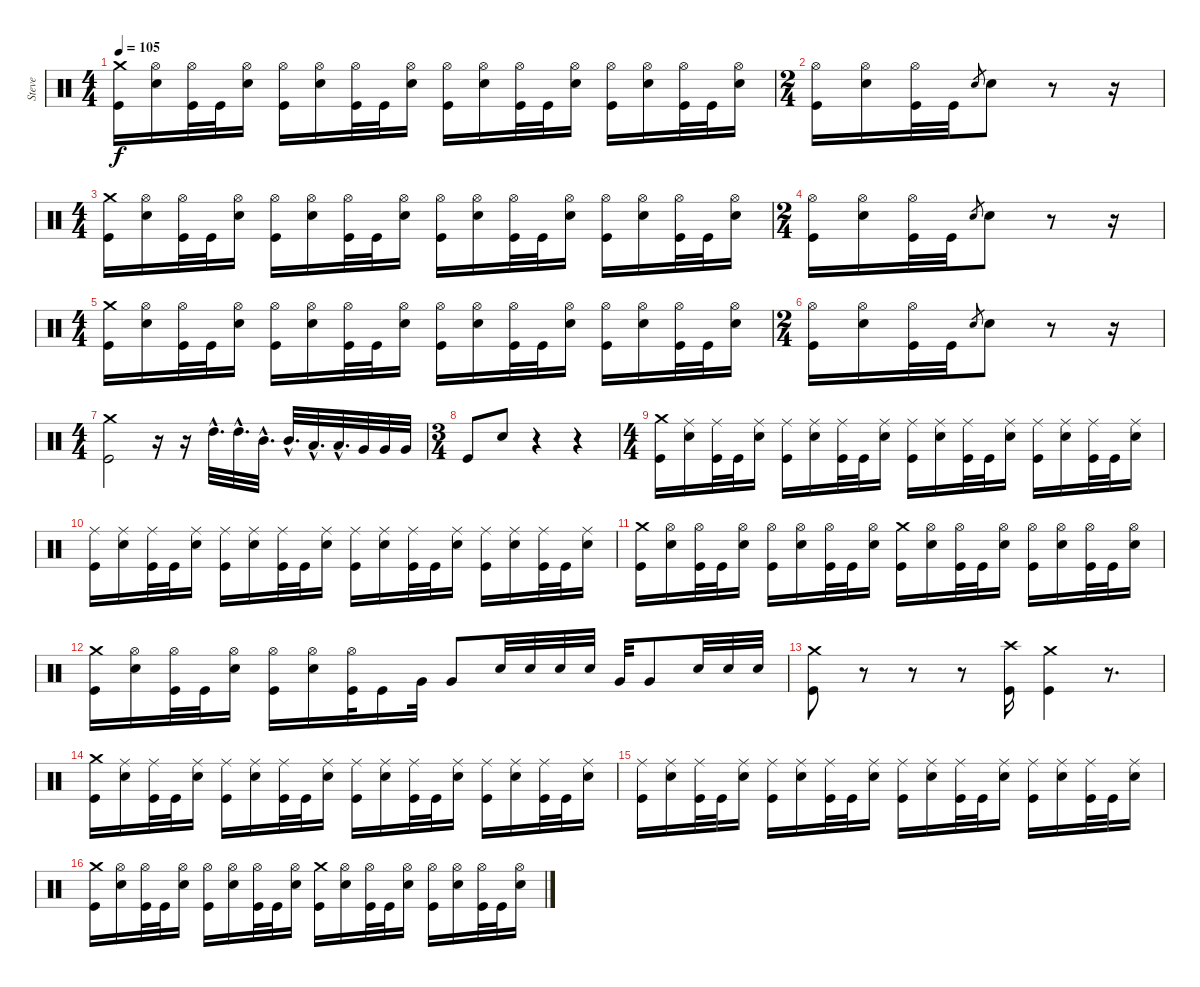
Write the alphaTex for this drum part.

\track ("Steve" "Steve") {instrument percussion}
\staff {score}
\articulation defaults
\ts (4 4)
\tempo 105
\clef neutral
\ks c
("Crash medium (hit)" "Kick (hit)").16{dy f} ("Hi-Hat (open)" "Electric Snare (hit)").16 ("Hi-Hat (open)" "Kick (hit)").32 "Kick (hit)".32 ("Hi-Hat (open)" "Electric Snare (hit)").16 ("Hi-Hat (open)" "Kick (hit)").16 ("Hi-Hat (open)" "Electric Snare (hit)").16 ("Hi-Hat (open)" "Kick (hit)").32 "Kick (hit)".32 ("Hi-Hat (open)" "Electric Snare (hit)").16 ("Hi-Hat (open)" "Kick (hit)").16 ("Hi-Hat (open)" "Electric Snare (hit)").16 ("Hi-Hat (open)" "Kick (hit)").32 "Kick (hit)".32 ("Hi-Hat (open)" "Electric Snare (hit)").16 ("Hi-Hat (open)" "Kick (hit)").16 ("Hi-Hat (open)" "Electric Snare (hit)").16 ("Hi-Hat (open)" "Kick (hit)").32 "Kick (hit)".32 ("Hi-Hat (open)" "Electric Snare (hit)").16 |
\ts (2 4)
("Hi-Hat (open)" "Kick (hit)").16 ("Hi-Hat (open)" "Electric Snare (hit)").16 ("Hi-Hat (open)" "Kick (hit)").32 "Kick (hit)".32 "Electric Snare (hit)".8{gr} "Electric Snare (hit)".8 r.8 r.16 |
\ts (4 4)
("Crash medium (hit)" "Kick (hit)").16 ("Hi-Hat (open)" "Electric Snare (hit)").16 ("Hi-Hat (open)" "Kick (hit)").32 "Kick (hit)".32 ("Hi-Hat (open)" "Electric Snare (hit)").16 ("Hi-Hat (open)" "Kick (hit)").16 ("Hi-Hat (open)" "Electric Snare (hit)").16 ("Hi-Hat (open)" "Kick (hit)").32 "Kick (hit)".32 ("Hi-Hat (open)" "Electric Snare (hit)").16 ("Hi-Hat (open)" "Kick (hit)").16 ("Hi-Hat (open)" "Electric Snare (hit)").16 ("Hi-Hat (open)" "Kick (hit)").32 "Kick (hit)".32 ("Hi-Hat (open)" "Electric Snare (hit)").16 ("Hi-Hat (open)" "Kick (hit)").16 ("Hi-Hat (open)" "Electric Snare (hit)").16 ("Hi-Hat (open)" "Kick (hit)").32 "Kick (hit)".32 ("Hi-Hat (open)" "Electric Snare (hit)").16 |
\ts (2 4)
("Hi-Hat (open)" "Kick (hit)").16 ("Hi-Hat (open)" "Electric Snare (hit)").16 ("Hi-Hat (open)" "Kick (hit)").32 "Kick (hit)".32 "Electric Snare (hit)".8{gr} "Electric Snare (hit)".8 r.8 r.16 |
\ts (4 4)
("Crash medium (hit)" "Kick (hit)").16 ("Hi-Hat (open)" "Electric Snare (hit)").16 ("Hi-Hat (open)" "Kick (hit)").32 "Kick (hit)".32 ("Hi-Hat (open)" "Electric Snare (hit)").16 ("Hi-Hat (open)" "Kick (hit)").16 ("Hi-Hat (open)" "Electric Snare (hit)").16 ("Hi-Hat (open)" "Kick (hit)").32 "Kick (hit)".32 ("Hi-Hat (open)" "Electric Snare (hit)").16 ("Hi-Hat (open)" "Kick (hit)").16 ("Hi-Hat (open)" "Electric Snare (hit)").16 ("Hi-Hat (open)" "Kick (hit)").32 "Kick (hit)".32 ("Hi-Hat (open)" "Electric Snare (hit)").16 ("Hi-Hat (open)" "Kick (hit)").16 ("Hi-Hat (open)" "Electric Snare (hit)").16 ("Hi-Hat (open)" "Kick (hit)").32 "Kick (hit)".32 ("Hi-Hat (open)" "Electric Snare (hit)").16 |
\ts (2 4)
("Hi-Hat (open)" "Kick (hit)").16 ("Hi-Hat (open)" "Electric Snare (hit)").16 ("Hi-Hat (open)" "Kick (hit)").32 "Kick (hit)".32 "Electric Snare (hit)".8{gr} "Electric Snare (hit)".8 r.8 r.16 |
\ts (4 4)
("Crash medium (hit)" "Kick (hit)").2 r.16 r.16 "High Tom (hit)"{hac}.32{d} "High Tom (hit)"{hac}.32{d} "Mid Tom (hit)"{hac}.32{d} "Mid Tom (hit)"{hac}.32{d} "Low Tom (hit)"{hac}.32{d} "Low Tom (hit)"{hac}.32{d} "Very Low Tom (hit)".32 "Very Low Tom (hit)".32 "Very Low Tom (hit)".32 |
\ts (3 4)
"Kick (hit)".8 "Electric Snare (hit)".8 r.4 r.4 |
\ts (4 4)
("Crash medium (hit)" "Kick (hit)").16 ("Ride (middle)" "Electric Snare (hit)").16 ("Ride (middle)" "Kick (hit)").32 "Kick (hit)".32 ("Ride (middle)" "Electric Snare (hit)").16 ("Ride (middle)" "Kick (hit)").16 ("Ride (middle)" "Electric Snare (hit)").16 ("Ride (middle)" "Kick (hit)").32 "Kick (hit)".32 ("Ride (middle)" "Electric Snare (hit)").16 ("Ride (middle)" "Kick (hit)").16 ("Ride (middle)" "Electric Snare (hit)").16 ("Ride (middle)" "Kick (hit)").32 "Kick (hit)".32 ("Ride (middle)" "Electric Snare (hit)").16 ("Ride (middle)" "Kick (hit)").16 ("Ride (middle)" "Electric Snare (hit)").16 ("Ride (middle)" "Kick (hit)").32 "Kick (hit)".32 ("Ride (middle)" "Electric Snare (hit)").16 |
("Ride (middle)" "Kick (hit)").16 ("Ride (middle)" "Electric Snare (hit)").16 ("Ride (middle)" "Kick (hit)").32 "Kick (hit)".32 ("Ride (middle)" "Electric Snare (hit)").16 ("Ride (middle)" "Kick (hit)").16 ("Ride (middle)" "Electric Snare (hit)").16 ("Ride (middle)" "Kick (hit)").32 "Kick (hit)".32 ("Ride (middle)" "Electric Snare (hit)").16 ("Ride (middle)" "Kick (hit)").16 ("Ride (middle)" "Electric Snare (hit)").16 ("Ride (middle)" "Kick (hit)").32 "Kick (hit)".32 ("Ride (middle)" "Electric Snare (hit)").16 ("Ride (middle)" "Kick (hit)").16 ("Ride (middle)" "Electric Snare (hit)").16 ("Ride (middle)" "Kick (hit)").32 "Kick (hit)".32 ("Ride (middle)" "Electric Snare (hit)").16 |
("Crash medium (hit)" "Kick (hit)").16 ("Hi-Hat (open)" "Electric Snare (hit)").16 ("Hi-Hat (open)" "Kick (hit)").32 "Kick (hit)".32 ("Hi-Hat (open)" "Electric Snare (hit)").16 ("Hi-Hat (open)" "Kick (hit)").16 ("Hi-Hat (open)" "Electric Snare (hit)").16 ("Hi-Hat (open)" "Kick (hit)").32 "Kick (hit)".32 ("Hi-Hat (open)" "Electric Snare (hit)").16 ("Crash medium (hit)" "Kick (hit)").16 ("Hi-Hat (open)" "Electric Snare (hit)").16 ("Hi-Hat (open)" "Kick (hit)").32 "Kick (hit)".32 ("Hi-Hat (open)" "Electric Snare (hit)").16 ("Hi-Hat (open)" "Kick (hit)").16 ("Hi-Hat (open)" "Electric Snare (hit)").16 ("Hi-Hat (open)" "Kick (hit)").32 "Kick (hit)".32 ("Hi-Hat (open)" "Electric Snare (hit)").16 |
("Crash medium (hit)" "Kick (hit)").16 ("Hi-Hat (open)" "Electric Snare (hit)").16 ("Hi-Hat (open)" "Kick (hit)").32 "Kick (hit)".32 ("Hi-Hat (open)" "Electric Snare (hit)").16 ("Hi-Hat (open)" "Kick (hit)").16 ("Hi-Hat (open)" "Electric Snare (hit)").16 ("Hi-Hat (open)" "Kick (hit)").32 "Kick (hit)".16 "Very Low Tom (hit)".32 "Very Low Tom (hit)".8 "Electric Snare (hit)".32 "Electric Snare (hit)".32 "Electric Snare (hit)".32 "Electric Snare (hit)".32 "Very Low Tom (hit)".32 "Very Low Tom (hit)".8 "Electric Snare (hit)".32 "Electric Snare (hit)".32 "Electric Snare (hit)".32 |
("Crash medium (hit)" "Kick (hit)").8 r.8 r.8 r.8 ("Crash high (hit)" "Kick (hit)").16 ("Crash medium (hit)" "Kick (hit)").4 r.8{d} |
("Crash medium (hit)" "Kick (hit)").16 ("Ride (middle)" "Electric Snare (hit)").16 ("Ride (middle)" "Kick (hit)").32 "Kick (hit)".32 ("Ride (middle)" "Electric Snare (hit)").16 ("Ride (middle)" "Kick (hit)").16 ("Ride (middle)" "Electric Snare (hit)").16 ("Ride (middle)" "Kick (hit)").32 "Kick (hit)".32 ("Ride (middle)" "Electric Snare (hit)").16 ("Ride (middle)" "Kick (hit)").16 ("Ride (middle)" "Electric Snare (hit)").16 ("Ride (middle)" "Kick (hit)").32 "Kick (hit)".32 ("Ride (middle)" "Electric Snare (hit)").16 ("Ride (middle)" "Kick (hit)").16 ("Ride (middle)" "Electric Snare (hit)").16 ("Ride (middle)" "Kick (hit)").32 "Kick (hit)".32 ("Ride (middle)" "Electric Snare (hit)").16 |
("Ride (middle)" "Kick (hit)").16 ("Ride (middle)" "Electric Snare (hit)").16 ("Ride (middle)" "Kick (hit)").32 "Kick (hit)".32 ("Ride (middle)" "Electric Snare (hit)").16 ("Ride (middle)" "Kick (hit)").16 ("Ride (middle)" "Electric Snare (hit)").16 ("Ride (middle)" "Kick (hit)").32 "Kick (hit)".32 ("Ride (middle)" "Electric Snare (hit)").16 ("Ride (middle)" "Kick (hit)").16 ("Ride (middle)" "Electric Snare (hit)").16 ("Ride (middle)" "Kick (hit)").32 "Kick (hit)".32 ("Ride (middle)" "Electric Snare (hit)").16 ("Ride (middle)" "Kick (hit)").16 ("Ride (middle)" "Electric Snare (hit)").16 ("Ride (middle)" "Kick (hit)").32 "Kick (hit)".32 ("Ride (middle)" "Electric Snare (hit)").16 |
("Crash medium (hit)" "Kick (hit)").16 ("Hi-Hat (open)" "Electric Snare (hit)").16 ("Hi-Hat (open)" "Kick (hit)").32 "Kick (hit)".32 ("Hi-Hat (open)" "Electric Snare (hit)").16 ("Hi-Hat (open)" "Kick (hit)").16 ("Hi-Hat (open)" "Electric Snare (hit)").16 ("Hi-Hat (open)" "Kick (hit)").32 "Kick (hit)".32 ("Hi-Hat (open)" "Electric Snare (hit)").16 ("Crash medium (hit)" "Kick (hit)").16 ("Hi-Hat (open)" "Electric Snare (hit)").16 ("Hi-Hat (open)" "Kick (hit)").32 "Kick (hit)".32 ("Hi-Hat (open)" "Electric Snare (hit)").16 ("Hi-Hat (open)" "Kick (hit)").16 ("Hi-Hat (open)" "Electric Snare (hit)").16 ("Hi-Hat (open)" "Kick (hit)").32 "Kick (hit)".32 ("Hi-Hat (open)" "Electric Snare (hit)").16
